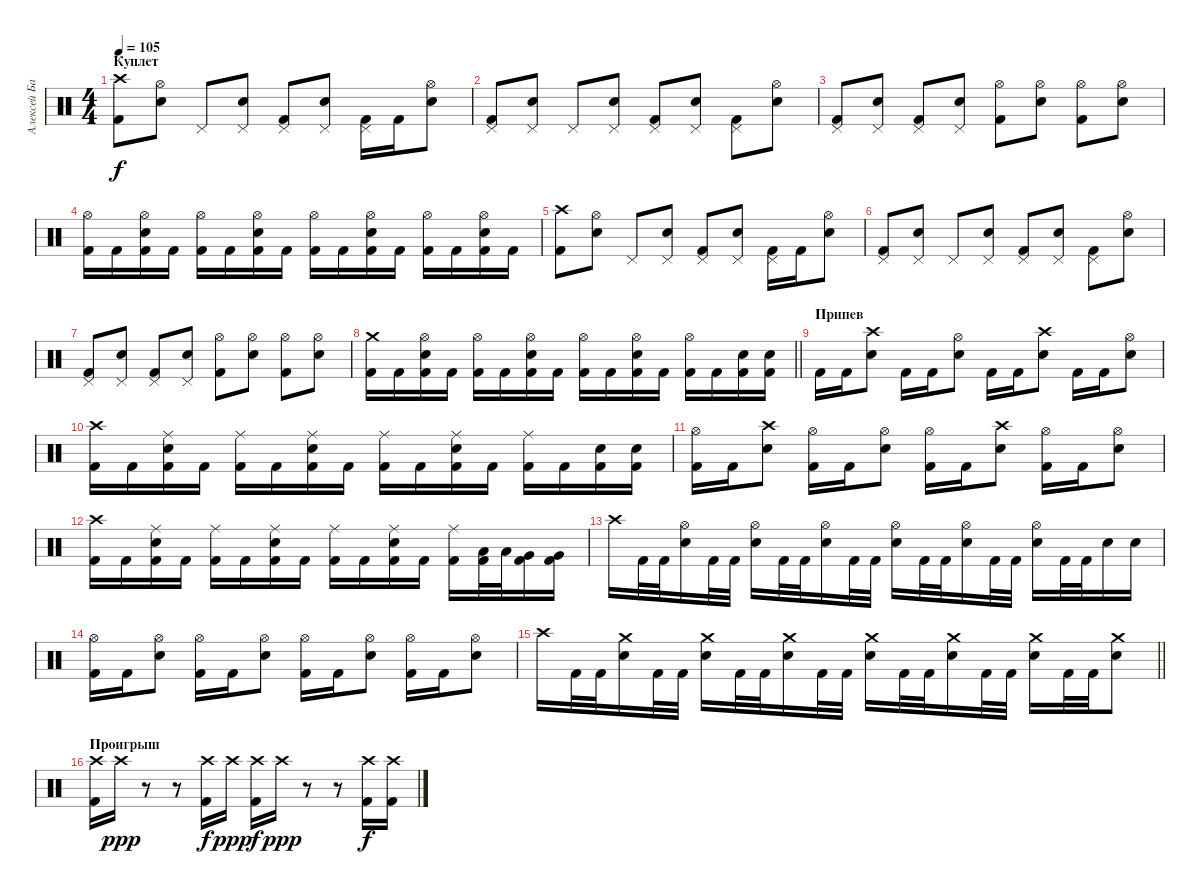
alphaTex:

\track ("Алексей Барзилович" "Алексей Ба") {instrument percussion}
\staff {score}
\articulation defaults
\ts (4 4)
\section ("" "Куплет")
\tempo 105
\clef neutral
\ks c
("Crash high (hit)" "Kick (hit) 2").8{dy f} ("Hi-Hat (open)" "Electric Snare (hit)").8 "Pedal Hi-Hat (hit)".8 ("Pedal Hi-Hat (hit)" "Electric Snare (hit)").8 ("Pedal Hi-Hat (hit)" "Kick (hit) 2").8 ("Pedal Hi-Hat (hit)" "Electric Snare (hit)").8 ("Pedal Hi-Hat (hit)" "Kick (hit) 2").16 "Kick (hit) 2".16 ("Hi-Hat (open)" "Electric Snare (hit)").8 |
("Pedal Hi-Hat (hit)" "Kick (hit) 2").8 ("Pedal Hi-Hat (hit)" "Electric Snare (hit)").8 "Pedal Hi-Hat (hit)".8 ("Pedal Hi-Hat (hit)" "Electric Snare (hit)").8 ("Pedal Hi-Hat (hit)" "Kick (hit) 2").8 ("Pedal Hi-Hat (hit)" "Electric Snare (hit)").8 ("Pedal Hi-Hat (hit)" "Kick (hit) 2").8 ("Hi-Hat (open)" "Electric Snare (hit)").8 |
("Pedal Hi-Hat (hit)" "Kick (hit) 2").8 ("Pedal Hi-Hat (hit)" "Electric Snare (hit)").8 ("Pedal Hi-Hat (hit)" "Kick (hit) 2").8 ("Pedal Hi-Hat (hit)" "Electric Snare (hit)").8 ("Hi-Hat (open)" "Kick (hit) 2").8 ("Hi-Hat (open)" "Electric Snare (hit)").8 ("Hi-Hat (open)" "Kick (hit) 2").8 ("Hi-Hat (open)" "Electric Snare (hit)").8 |
("Hi-Hat (open)" "Kick (hit) 2").16 "Kick (hit) 2".16 ("Hi-Hat (open)" "Electric Snare (hit)" "Kick (hit) 2").16 "Kick (hit) 2".16 ("Hi-Hat (open)" "Kick (hit) 2").16 "Kick (hit) 2".16 ("Hi-Hat (open)" "Electric Snare (hit)" "Kick (hit) 2").16 "Kick (hit) 2".16 ("Hi-Hat (open)" "Kick (hit) 2").16 "Kick (hit) 2".16 ("Hi-Hat (open)" "Electric Snare (hit)" "Kick (hit) 2").16 "Kick (hit) 2".16 ("Hi-Hat (open)" "Kick (hit) 2").16 "Kick (hit) 2".16 ("Hi-Hat (open)" "Electric Snare (hit)" "Kick (hit) 2").16 "Kick (hit) 2".16 |
("Crash high (hit)" "Kick (hit) 2").8 ("Hi-Hat (open)" "Electric Snare (hit)").8 "Pedal Hi-Hat (hit)".8 ("Pedal Hi-Hat (hit)" "Electric Snare (hit)").8 ("Pedal Hi-Hat (hit)" "Kick (hit) 2").8 ("Pedal Hi-Hat (hit)" "Electric Snare (hit)").8 ("Pedal Hi-Hat (hit)" "Kick (hit) 2").16 "Kick (hit) 2".16 ("Hi-Hat (open)" "Electric Snare (hit)").8 |
("Pedal Hi-Hat (hit)" "Kick (hit) 2").8 ("Pedal Hi-Hat (hit)" "Electric Snare (hit)").8 "Pedal Hi-Hat (hit)".8 ("Pedal Hi-Hat (hit)" "Electric Snare (hit)").8 ("Pedal Hi-Hat (hit)" "Kick (hit) 2").8 ("Pedal Hi-Hat (hit)" "Electric Snare (hit)").8 ("Pedal Hi-Hat (hit)" "Kick (hit) 2").8 ("Hi-Hat (open)" "Electric Snare (hit)").8 |
("Pedal Hi-Hat (hit)" "Kick (hit) 2").8 ("Pedal Hi-Hat (hit)" "Electric Snare (hit)").8 ("Pedal Hi-Hat (hit)" "Kick (hit) 2").8 ("Pedal Hi-Hat (hit)" "Electric Snare (hit)").8 ("Hi-Hat (open)" "Kick (hit) 2").8 ("Hi-Hat (open)" "Electric Snare (hit)").8 ("Hi-Hat (open)" "Kick (hit) 2").8 ("Hi-Hat (open)" "Electric Snare (hit)").8 |
\barLineRight lightlight
("Crash medium (hit)" "Kick (hit) 2").16 "Kick (hit) 2".16 ("Hi-Hat (open)" "Electric Snare (hit)" "Kick (hit) 2").16 "Kick (hit) 2".16 ("Hi-Hat (open)" "Kick (hit) 2").16 "Kick (hit) 2".16 ("Hi-Hat (open)" "Electric Snare (hit)" "Kick (hit) 2").16 "Kick (hit) 2".16 ("Hi-Hat (open)" "Kick (hit) 2").16 "Kick (hit) 2".16 ("Hi-Hat (open)" "Electric Snare (hit)" "Kick (hit) 2").16 "Kick (hit) 2".16 ("Hi-Hat (open)" "Kick (hit) 2").16 "Kick (hit) 2".16 ("Electric Snare (hit)" "Kick (hit) 2").16 ("Electric Snare (hit)" "Kick (hit) 2").16 |
\section ("" "Припев")
"Kick (hit) 2".16 "Kick (hit) 2".16 ("Crash high (hit)" "Electric Snare (hit)").8 "Kick (hit) 2".16 "Kick (hit) 2".16 ("Hi-Hat (open)" "Electric Snare (hit)").8 "Kick (hit) 2".16 "Kick (hit) 2".16 ("Crash high (hit)" "Electric Snare (hit)").8 "Kick (hit) 2".16 "Kick (hit) 2".16 ("Hi-Hat (open)" "Electric Snare (hit)").8 |
("Crash high (hit)" "Kick (hit) 2").16 "Kick (hit) 2".16 ("Ride (middle)" "Electric Snare (hit)" "Kick (hit) 2").16 "Kick (hit) 2".16 ("Ride (middle)" "Kick (hit) 2").16 "Kick (hit) 2".16 ("Ride (middle)" "Electric Snare (hit)" "Kick (hit) 2").16 "Kick (hit) 2".16 ("Ride (middle)" "Kick (hit) 2").16 "Kick (hit) 2".16 ("Ride (middle)" "Electric Snare (hit)" "Kick (hit) 2").16 "Kick (hit) 2".16 ("Ride (middle)" "Kick (hit) 2").16 "Kick (hit) 2".16 ("Electric Snare (hit)" "Kick (hit) 2").16 ("Electric Snare (hit)" "Kick (hit) 2").16 |
("Hi-Hat (open)" "Kick (hit) 2").16 "Kick (hit) 2".16 ("Crash high (hit)" "Electric Snare (hit)").8 ("Hi-Hat (open)" "Kick (hit) 2").16 "Kick (hit) 2".16 ("Hi-Hat (open)" "Electric Snare (hit)").8 ("Hi-Hat (open)" "Kick (hit) 2").16 "Kick (hit) 2".16 ("Crash high (hit)" "Electric Snare (hit)").8 ("Hi-Hat (open)" "Kick (hit) 2").16 "Kick (hit) 2".16 ("Hi-Hat (open)" "Electric Snare (hit)").8 |
("Crash high (hit)" "Kick (hit) 2").16 "Kick (hit) 2".16 ("Ride (middle)" "Electric Snare (hit)" "Kick (hit) 2").16 "Kick (hit) 2".16 ("Ride (middle)" "Kick (hit) 2").16 "Kick (hit) 2".16 ("Ride (middle)" "Electric Snare (hit)" "Kick (hit) 2").16 "Kick (hit) 2".16 ("Ride (middle)" "Kick (hit) 2").16 "Kick (hit) 2".16 ("Ride (middle)" "Electric Snare (hit)" "Kick (hit) 2").16 "Kick (hit) 2".16 ("Ride (middle)" "Kick (hit) 2").16 ("Low Tom (hit)" "Kick (hit) 2").32 "Low Tom (hit)".32 ("Very Low Tom (hit)" "Kick (hit) 2").16 ("Very Low Tom (hit)" "Kick (hit) 2").16 |
"Crash high (hit)".16 "Kick (hit) 2".32 "Kick (hit) 2".32 ("Hi-Hat (open)" "Electric Snare (hit)").16 "Kick (hit) 2".32 "Kick (hit) 2".32 ("Hi-Hat (open)" "Electric Snare (hit)").16 "Kick (hit) 2".32 "Kick (hit) 2".32 ("Hi-Hat (open)" "Electric Snare (hit)").16 "Kick (hit) 2".32 "Kick (hit) 2".32 ("Hi-Hat (open)" "Electric Snare (hit)").16 "Kick (hit) 2".32 "Kick (hit) 2".32 ("Hi-Hat (open)" "Electric Snare (hit)").16 "Kick (hit) 2".32 "Kick (hit) 2".32 ("Hi-Hat (open)" "Electric Snare (hit)").16 "Kick (hit) 2".32 "Kick (hit) 2".32 "Electric Snare (hit)".16 "Electric Snare (hit)".16 |
("Hi-Hat (open)" "Kick (hit) 2").16 "Kick (hit) 2".16 ("Hi-Hat (open)" "Electric Snare (hit)").8 ("Hi-Hat (open)" "Kick (hit) 2").16 "Kick (hit) 2".16 ("Hi-Hat (open)" "Electric Snare (hit)").8 ("Hi-Hat (open)" "Kick (hit) 2").16 "Kick (hit) 2".16 ("Hi-Hat (open)" "Electric Snare (hit)").8 ("Hi-Hat (open)" "Kick (hit) 2").16 "Kick (hit) 2".16 ("Hi-Hat (open)" "Electric Snare (hit)").8 |
\barLineRight lightlight "Crash high (hit)".16 "Kick (hit) 2".32 "Kick (hit) 2".32
("Crash medium (hit)" "Electric Snare (hit)").16 "Kick (hit) 2".32 "Kick (hit) 2".32 ("Crash medium (hit)" "Electric Snare (hit)").16 "Kick (hit) 2".32 "Kick (hit) 2".32 ("Crash medium (hit)" "Electric Snare (hit)").16 "Kick (hit) 2".32 "Kick (hit) 2".32 ("Crash medium (hit)" "Electric Snare (hit)").16 "Kick (hit) 2".32 "Kick (hit) 2".32 ("Crash medium (hit)" "Electric Snare (hit)").16 "Kick (hit) 2".32 "Kick (hit) 2".32 ("Crash medium (hit)" "Electric Snare (hit)").16 "Kick (hit) 2".32 "Kick (hit) 2".32 ("Crash medium (hit)" "Electric Snare (hit)").8 |
\section ("" "Проигрыш")
("Crash high (hit)" "Kick (hit) 2").16 "Crash high (hit)".16{dy ppp} r.8 r.8 ("Crash high (hit)" "Kick (hit) 2").16{dy f} "Crash high (hit)".16{dy ppp} ("Crash high (hit)" "Kick (hit) 2").16{dy f} "Crash high (hit)".16{dy ppp} r.8 r.8 ("Crash high (hit)" "Kick (hit) 2").16{dy f} ("Crash high (hit)" "Kick (hit) 2").16
